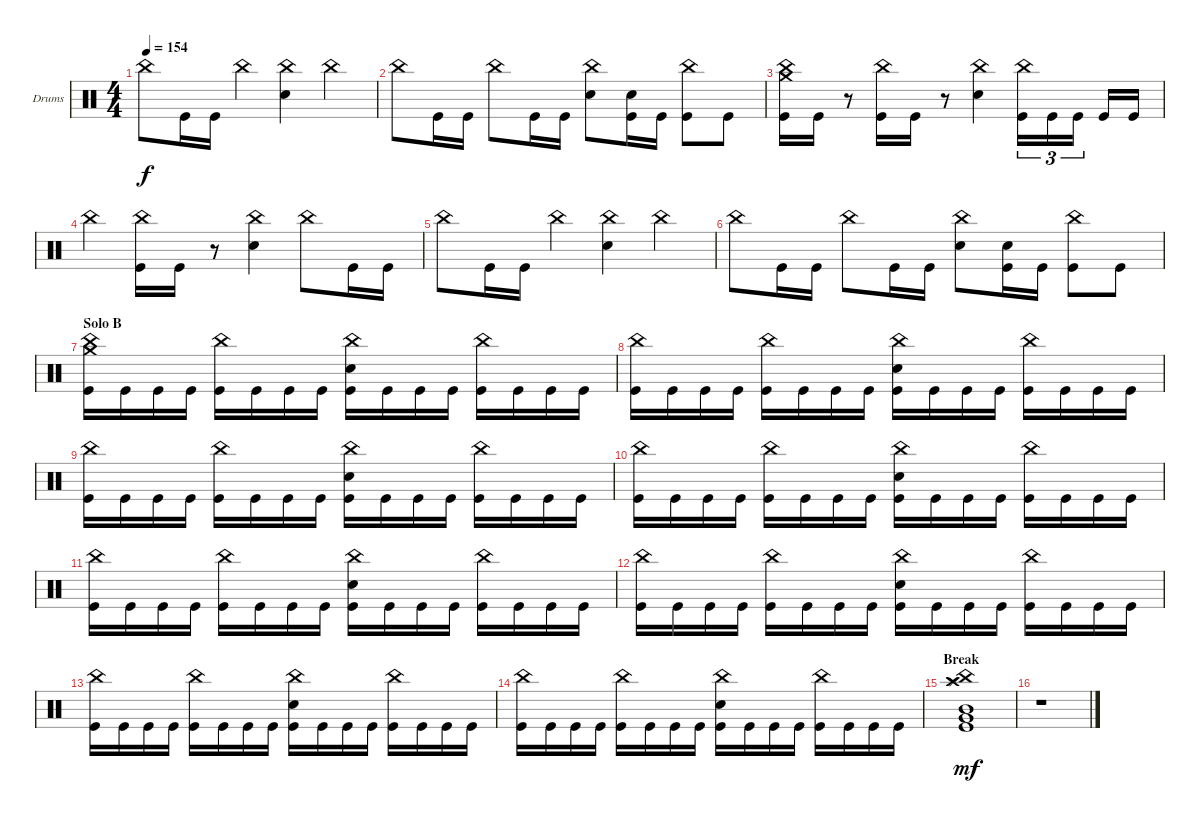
\defaultSystemsLayout 4
\bracketExtendMode groupsimilarinstruments
\firstSystemTrackNameOrientation horizontal
\otherSystemsTrackNameOrientation horizontal
\track ("Drums" "Drums") {instrument percussion}
\staff {score}
\articulation defaults
\ts (4 4)
\tempo 154
\clef neutral
\ks c "China (hit)".8{dy f} "Kick (hit)".16 "Kick (hit)".16 "China (hit)".4
("China (hit)" "Snare (hit) 2").4 "China (hit)".4 |
"China (hit)".8 "Kick (hit)".16 "Kick (hit)".16 "China (hit)".8 "Kick (hit)".16 "Kick (hit)".16 ("China (hit)" "Snare (hit) 2").8 ("Kick (hit)" "Snare (hit) 2").16 "Kick (hit)".16 ("Kick (hit)" "China (hit)").8 "Kick (hit)".8 |
("Kick (hit)" "China (hit)" "Crash medium (hit)").16 "Kick (hit)".16 r.8 ("Kick (hit)" "China (hit)").16 "Kick (hit)".16 r.8 ("Snare (hit) 2" "China (hit)").4 ("Kick (hit)" "China (hit)").16{tu (3 2)} "Kick (hit)".16{tu (3 2)} "Kick (hit)".16{tu (3 2)} "Kick (hit)".16 "Kick (hit)".16 |
"China (hit)".4 ("Kick (hit)" "China (hit)").16 "Kick (hit)".16 r.8 ("Snare (hit) 2" "China (hit)").4 "China (hit)".8 "Kick (hit)".16 "Kick (hit)".16 |
"China (hit)".8 "Kick (hit)".16 "Kick (hit)".16 "China (hit)".4 ("China (hit)" "Snare (hit) 2").4 "China (hit)".4 |
"China (hit)".8 "Kick (hit)".16 "Kick (hit)".16 "China (hit)".8 "Kick (hit)".16 "Kick (hit)".16 ("China (hit)" "Snare (hit) 2").8 ("Kick (hit)" "Snare (hit) 2").16 "Kick (hit)".16 ("Kick (hit)" "China (hit)").8 "Kick (hit)".8 |
\section ("" "Solo B")
("Kick (hit)" "China (hit)" "Crash medium (hit)").16 "Kick (hit)".16 "Kick (hit)".16 "Kick (hit)".16 ("Kick (hit)" "China (hit)").16 "Kick (hit)".16 "Kick (hit)".16 "Kick (hit)".16 ("Snare (hit) 2" "China (hit)" "Kick (hit)").16 "Kick (hit)".16 "Kick (hit)".16 "Kick (hit)".16 ("Kick (hit)" "China (hit)").16 "Kick (hit)".16 "Kick (hit)".16 "Kick (hit)".16 |
("Kick (hit)" "China (hit)").16 "Kick (hit)".16 "Kick (hit)".16 "Kick (hit)".16 ("Kick (hit)" "China (hit)").16 "Kick (hit)".16 "Kick (hit)".16 "Kick (hit)".16 ("Snare (hit) 2" "China (hit)" "Kick (hit)").16 "Kick (hit)".16 "Kick (hit)".16 "Kick (hit)".16 ("Kick (hit)" "China (hit)").16 "Kick (hit)".16 "Kick (hit)".16 "Kick (hit)".16 |
("Kick (hit)" "China (hit)").16 "Kick (hit)".16 "Kick (hit)".16 "Kick (hit)".16 ("Kick (hit)" "China (hit)").16 "Kick (hit)".16 "Kick (hit)".16 "Kick (hit)".16 ("Snare (hit) 2" "China (hit)" "Kick (hit)").16 "Kick (hit)".16 "Kick (hit)".16 "Kick (hit)".16 ("Kick (hit)" "China (hit)").16 "Kick (hit)".16 "Kick (hit)".16 "Kick (hit)".16 |
("Kick (hit)" "China (hit)").16 "Kick (hit)".16 "Kick (hit)".16 "Kick (hit)".16 ("Kick (hit)" "China (hit)").16 "Kick (hit)".16 "Kick (hit)".16 "Kick (hit)".16 ("Snare (hit) 2" "China (hit)" "Kick (hit)").16 "Kick (hit)".16 "Kick (hit)".16 "Kick (hit)".16 ("Kick (hit)" "China (hit)").16 "Kick (hit)".16 "Kick (hit)".16 "Kick (hit)".16 |
("Kick (hit)" "China (hit)").16 "Kick (hit)".16 "Kick (hit)".16 "Kick (hit)".16 ("Kick (hit)" "China (hit)").16 "Kick (hit)".16 "Kick (hit)".16 "Kick (hit)".16 ("Snare (hit) 2" "China (hit)" "Kick (hit)").16 "Kick (hit)".16 "Kick (hit)".16 "Kick (hit)".16 ("Kick (hit)" "China (hit)").16 "Kick (hit)".16 "Kick (hit)".16 "Kick (hit)".16 |
("Kick (hit)" "China (hit)").16 "Kick (hit)".16 "Kick (hit)".16 "Kick (hit)".16 ("Kick (hit)" "China (hit)").16 "Kick (hit)".16 "Kick (hit)".16 "Kick (hit)".16 ("Snare (hit) 2" "China (hit)" "Kick (hit)").16 "Kick (hit)".16 "Kick (hit)".16 "Kick (hit)".16 ("Kick (hit)" "China (hit)").16 "Kick (hit)".16 "Kick (hit)".16 "Kick (hit)".16 |
("Kick (hit)" "China (hit)").16 "Kick (hit)".16 "Kick (hit)".16 "Kick (hit)".16 ("Kick (hit)" "China (hit)").16 "Kick (hit)".16 "Kick (hit)".16 "Kick (hit)".16 ("Snare (hit) 2" "China (hit)" "Kick (hit)").16 "Kick (hit)".16 "Kick (hit)".16 "Kick (hit)".16 ("Kick (hit)" "China (hit)").16 "Kick (hit)".16 "Kick (hit)".16 "Kick (hit)".16 |
("Kick (hit)" "China (hit)").16 "Kick (hit)".16 "Kick (hit)".16 "Kick (hit)".16 ("Kick (hit)" "China (hit)").16 "Kick (hit)".16 "Kick (hit)".16 "Kick (hit)".16 ("Snare (hit) 2" "China (hit)" "Kick (hit)").16 "Kick (hit)".16 "Kick (hit)".16 "Kick (hit)".16 ("Kick (hit)" "China (hit)").16 "Kick (hit)".16 "Kick (hit)".16 "Kick (hit)".16 |
\section ("" "Break")
("Kick (hit)" "Very Low Tom (hit)" "Mid Tom (hit)" "Splash (hit)" "Crash high (hit)" "China (hit)").1{dy mf} |
r.1
